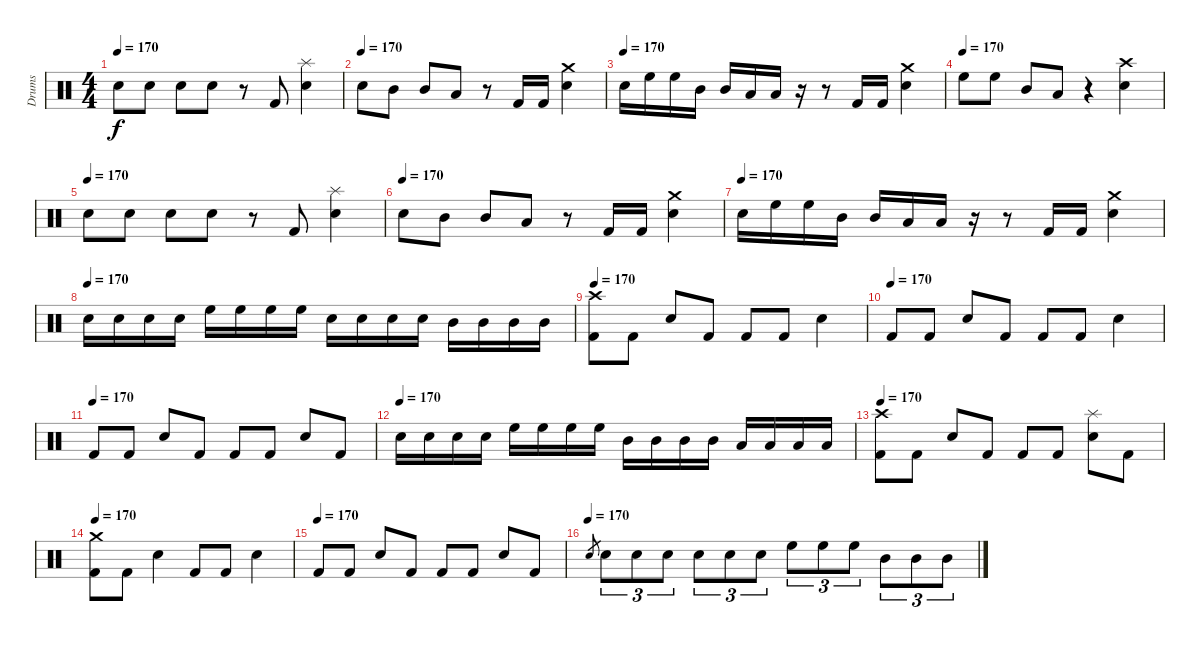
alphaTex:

\track ("Drums" "Drums") {instrument percussion}
\staff {score}
\articulation defaults
\ts (4 4)
\tempo 170
\clef neutral
\ks c "Electric Snare (hit)".8{dy f} "Electric Snare (hit)".8 "Electric Snare (hit)".8 "Electric Snare (hit)".8
r.8 "Kick (hit) 2".8 ("Splash (hit)" "Electric Snare (hit)").4 |
\tempo (170)
"Electric Snare (hit)".8 "Mid Tom (hit)".8 "Mid Tom (hit)".8 "Low Tom (hit)".8 r.8 "Kick (hit) 2".16 "Kick (hit) 2".16 ("Crash medium (hit)" "Electric Snare (hit)").4 |
\tempo (170)
"Electric Snare (hit)".16 "High Floor Tom (hit)".16 "High Floor Tom (hit)".16 "Mid Tom (hit)".16 "Mid Tom (hit)".16 "Low Tom (hit)".16 "Low Tom (hit)".16 r.16 r.8 "Kick (hit) 2".16 "Kick (hit) 2".16 ("Crash medium (hit)" "Electric Snare (hit)").4 |
\tempo (170)
"High Floor Tom (hit)".8 "High Floor Tom (hit)".8 "Mid Tom (hit)".8 "Low Tom (hit)".8 r.4 ("Crash high (hit)" "Electric Snare (hit)").4 |
\tempo (170)
"Electric Snare (hit)".8 "Electric Snare (hit)".8 "Electric Snare (hit)".8 "Electric Snare (hit)".8 r.8 "Kick (hit) 2".8 ("Splash (hit)" "Electric Snare (hit)").4 |
\tempo (170)
"Electric Snare (hit)".8 "Mid Tom (hit)".8 "Mid Tom (hit)".8 "Low Tom (hit)".8 r.8 "Kick (hit) 2".16 "Kick (hit) 2".16 ("Crash medium (hit)" "Electric Snare (hit)").4 |
\tempo (170)
"Electric Snare (hit)".16 "High Floor Tom (hit)".16 "High Floor Tom (hit)".16 "Mid Tom (hit)".16 "Mid Tom (hit)".16 "Low Tom (hit)".16 "Low Tom (hit)".16 r.16 r.8 "Kick (hit) 2".16 "Kick (hit) 2".16 ("Crash medium (hit)" "Electric Snare (hit)").4 |
\tempo (170)
"Electric Snare (hit)".16 "Electric Snare (hit)".16 "Electric Snare (hit)".16 "Electric Snare (hit)".16 "High Floor Tom (hit)".16 "High Floor Tom (hit)".16 "High Floor Tom (hit)".16 "High Floor Tom (hit)".16 "Electric Snare (hit)".16 "Electric Snare (hit)".16 "Electric Snare (hit)".16 "Electric Snare (hit)".16 "Mid Tom (hit)".16 "Mid Tom (hit)".16 "Mid Tom (hit)".16 "Mid Tom (hit)".16 |
\tempo 170
("Crash high (hit)" "Kick (hit) 2").8 "Kick (hit) 2".8 "Electric Snare (hit)".8 "Kick (hit) 2".8 "Kick (hit) 2".8 "Kick (hit) 2".8 "Electric Snare (hit)".4 |
\tempo (170)
"Kick (hit) 2".8 "Kick (hit) 2".8 "Electric Snare (hit)".8 "Kick (hit) 2".8 "Kick (hit) 2".8 "Kick (hit) 2".8 "Electric Snare (hit)".4 |
\tempo (170)
"Kick (hit) 2".8 "Kick (hit) 2".8 "Electric Snare (hit)".8 "Kick (hit) 2".8 "Kick (hit) 2".8 "Kick (hit) 2".8 "Electric Snare (hit)".8 "Kick (hit) 2".8 |
\tempo (170)
"Electric Snare (hit)".16 "Electric Snare (hit)".16 "Electric Snare (hit)".16 "Electric Snare (hit)".16 "High Floor Tom (hit)".16 "High Floor Tom (hit)".16 "High Floor Tom (hit)".16 "High Floor Tom (hit)".16 "Mid Tom (hit)".16 "Mid Tom (hit)".16 "Mid Tom (hit)".16 "Mid Tom (hit)".16 "Low Tom (hit)".16 "Low Tom (hit)".16 "Low Tom (hit)".16 "Low Tom (hit)".16 |
\tempo 170
("Crash high (hit)" "Kick (hit) 2").8 "Kick (hit) 2".8 "Electric Snare (hit)".8 "Kick (hit) 2".8 "Kick (hit) 2".8 "Kick (hit) 2".8 ("Splash (hit)" "Electric Snare (hit)").8 "Kick (hit) 2".8 |
\tempo 170
("Crash medium (hit)" "Kick (hit) 2").8 "Kick (hit) 2".8 "Electric Snare (hit)".4 "Kick (hit) 2".8 "Kick (hit) 2".8 "Electric Snare (hit)".4 |
\tempo (170)
"Kick (hit) 2".8 "Kick (hit) 2".8 "Electric Snare (hit)".8 "Kick (hit) 2".8 "Kick (hit) 2".8 "Kick (hit) 2".8 "Electric Snare (hit)".8 "Kick (hit) 2".8 |
\tempo (170)
"Electric Snare (hit)".8{gr} "Electric Snare (hit)".8{tu (3 2)} "Electric Snare (hit)".8{tu (3 2)} "Electric Snare (hit)".8{tu (3 2)} "Electric Snare (hit)".8{tu (3 2)} "Electric Snare (hit)".8{tu (3 2)} "Electric Snare (hit)".8{tu (3 2)} "High Floor Tom (hit)".8{tu (3 2)} "High Floor Tom (hit)".8{tu (3 2)} "High Floor Tom (hit)".8{tu (3 2)} "Mid Tom (hit)".8{tu (3 2)} "Mid Tom (hit)".8{tu (3 2)} "Mid Tom (hit)".8{tu (3 2)}
